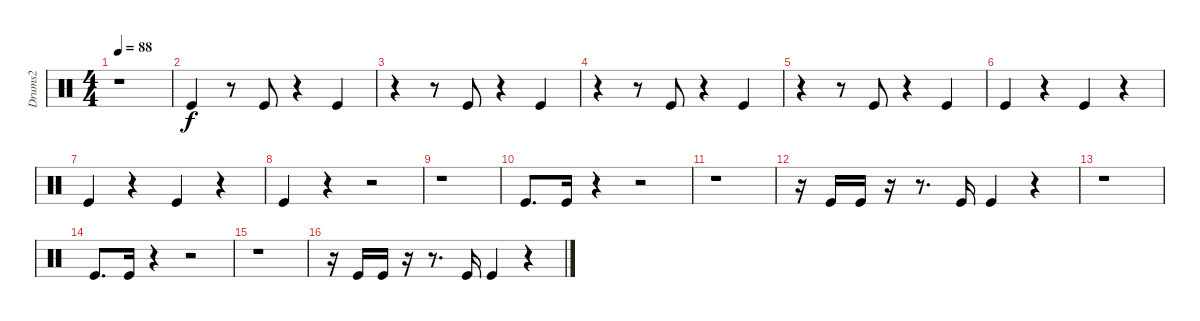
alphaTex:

\track ("Drums2" "Drums2") {instrument percussion}
\staff {score}
\articulation defaults
\ts (4 4)
\tempo 88
\clef neutral
\ks c
r.1{dy f} |
"Kick (hit)".4 r.8 "Kick (hit)".8 r.4 "Kick (hit)".4 |
r.4 r.8 "Kick (hit)".8 r.4 "Kick (hit)".4 |
r.4 r.8 "Kick (hit)".8 r.4 "Kick (hit)".4 |
r.4 r.8 "Kick (hit)".8 r.4 "Kick (hit)".4 |
"Kick (hit)".4 r.4 "Kick (hit)".4 r.4 |
"Kick (hit)".4 r.4 "Kick (hit)".4 r.4 |
"Kick (hit)".4 r.4 r.2 |
r.1 |
"Kick (hit)".8{d} "Kick (hit)".16 r.4 r.2 |
r.1 |
r.16 "Kick (hit)".16 "Kick (hit)".16 r.16 r.8{d} "Kick (hit)".16 "Kick (hit)".4 r.4 |
r.1 |
"Kick (hit)".8{d} "Kick (hit)".16 r.4 r.2 |
r.1 |
r.16 "Kick (hit)".16 "Kick (hit)".16 r.16 r.8{d} "Kick (hit)".16 "Kick (hit)".4 r.4
